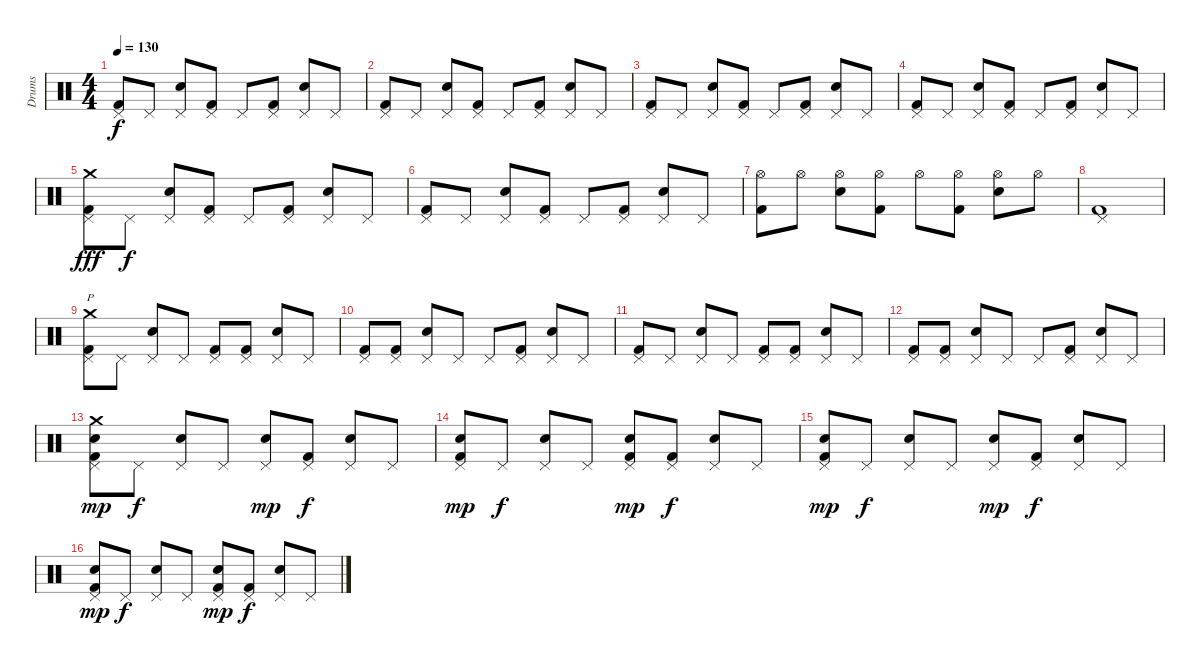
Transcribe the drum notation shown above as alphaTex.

\track ("Drums" "Drums") {instrument percussion}
\staff {score}
\articulation defaults
\ts (4 4)
\tempo 130
\clef neutral
\ks c
("Kick (hit) 2" "Pedal Hi-Hat (hit)").8{dy f} "Pedal Hi-Hat (hit)".8 ("Electric Snare (hit)" "Pedal Hi-Hat (hit)").8 ("Kick (hit) 2" "Pedal Hi-Hat (hit)").8 "Pedal Hi-Hat (hit)".8 ("Kick (hit) 2" "Pedal Hi-Hat (hit)").8 ("Electric Snare (hit)" "Pedal Hi-Hat (hit)").8 "Pedal Hi-Hat (hit)".8 |
("Kick (hit) 2" "Pedal Hi-Hat (hit)").8 "Pedal Hi-Hat (hit)".8 ("Electric Snare (hit)" "Pedal Hi-Hat (hit)").8 ("Kick (hit) 2" "Pedal Hi-Hat (hit)").8 "Pedal Hi-Hat (hit)".8 ("Kick (hit) 2" "Pedal Hi-Hat (hit)").8 ("Electric Snare (hit)" "Pedal Hi-Hat (hit)").8 "Pedal Hi-Hat (hit)".8 |
("Kick (hit) 2" "Pedal Hi-Hat (hit)").8 "Pedal Hi-Hat (hit)".8 ("Electric Snare (hit)" "Pedal Hi-Hat (hit)").8 ("Kick (hit) 2" "Pedal Hi-Hat (hit)").8 "Pedal Hi-Hat (hit)".8 ("Kick (hit) 2" "Pedal Hi-Hat (hit)").8 ("Electric Snare (hit)" "Pedal Hi-Hat (hit)").8 "Pedal Hi-Hat (hit)".8 |
("Kick (hit) 2" "Pedal Hi-Hat (hit)").8 "Pedal Hi-Hat (hit)".8 ("Electric Snare (hit)" "Pedal Hi-Hat (hit)").8 ("Kick (hit) 2" "Pedal Hi-Hat (hit)").8 "Pedal Hi-Hat (hit)".8 ("Kick (hit) 2" "Pedal Hi-Hat (hit)").8 ("Electric Snare (hit)" "Pedal Hi-Hat (hit)").8 "Pedal Hi-Hat (hit)".8 |
("Kick (hit) 2" "Crash medium (hit)" "Pedal Hi-Hat (hit)").8{dy fff} "Pedal Hi-Hat (hit)".8{dy f} ("Electric Snare (hit)" "Pedal Hi-Hat (hit)").8 ("Kick (hit) 2" "Pedal Hi-Hat (hit)").8 "Pedal Hi-Hat (hit)".8 ("Kick (hit) 2" "Pedal Hi-Hat (hit)").8 ("Electric Snare (hit)" "Pedal Hi-Hat (hit)").8 "Pedal Hi-Hat (hit)".8 |
("Kick (hit) 2" "Pedal Hi-Hat (hit)").8 "Pedal Hi-Hat (hit)".8 ("Electric Snare (hit)" "Pedal Hi-Hat (hit)").8 ("Kick (hit) 2" "Pedal Hi-Hat (hit)").8 "Pedal Hi-Hat (hit)".8 ("Kick (hit) 2" "Pedal Hi-Hat (hit)").8 ("Electric Snare (hit)" "Pedal Hi-Hat (hit)").8 "Pedal Hi-Hat (hit)".8 |
("Kick (hit) 2" "Hi-Hat (open)").8 "Hi-Hat (open)".8 ("Electric Snare (hit)" "Hi-Hat (open)").8 ("Kick (hit) 2" "Hi-Hat (open)").8 "Hi-Hat (open)".8 ("Kick (hit) 2" "Hi-Hat (open)").8 ("Electric Snare (hit)" "Hi-Hat (open)").8 "Hi-Hat (open)".8 |
("Pedal Hi-Hat (hit)" "Kick (hit) 2").1 |
("Kick (hit) 2" "Crash medium (hit)" "Pedal Hi-Hat (hit)").8{p} "Pedal Hi-Hat (hit)".8 ("Electric Snare (hit)" "Pedal Hi-Hat (hit)").8 "Pedal Hi-Hat (hit)".8 ("Kick (hit) 2" "Pedal Hi-Hat (hit)").8 ("Kick (hit) 2" "Pedal Hi-Hat (hit)").8 ("Electric Snare (hit)" "Pedal Hi-Hat (hit)").8 "Pedal Hi-Hat (hit)".8 |
("Kick (hit) 2" "Pedal Hi-Hat (hit)").8 ("Kick (hit) 2" "Pedal Hi-Hat (hit)").8 ("Electric Snare (hit)" "Pedal Hi-Hat (hit)").8 "Pedal Hi-Hat (hit)".8 "Pedal Hi-Hat (hit)".8 ("Kick (hit) 2" "Pedal Hi-Hat (hit)").8 ("Electric Snare (hit)" "Pedal Hi-Hat (hit)").8 "Pedal Hi-Hat (hit)".8 |
("Kick (hit) 2" "Pedal Hi-Hat (hit)").8 "Pedal Hi-Hat (hit)".8 ("Electric Snare (hit)" "Pedal Hi-Hat (hit)").8 "Pedal Hi-Hat (hit)".8 ("Kick (hit) 2" "Pedal Hi-Hat (hit)").8 ("Kick (hit) 2" "Pedal Hi-Hat (hit)").8 ("Electric Snare (hit)" "Pedal Hi-Hat (hit)").8 "Pedal Hi-Hat (hit)".8 |
("Kick (hit) 2" "Pedal Hi-Hat (hit)").8 ("Kick (hit) 2" "Pedal Hi-Hat (hit)").8 ("Electric Snare (hit)" "Pedal Hi-Hat (hit)").8 "Pedal Hi-Hat (hit)".8 "Pedal Hi-Hat (hit)".8 ("Kick (hit) 2" "Pedal Hi-Hat (hit)").8 ("Electric Snare (hit)" "Pedal Hi-Hat (hit)").8 "Pedal Hi-Hat (hit)".8 |
("Kick (hit) 2" "Electric Snare (hit)" "Pedal Hi-Hat (hit)" "Crash medium (hit)").8{dy mp} "Pedal Hi-Hat (hit)".8{dy f} ("Electric Snare (hit)" "Pedal Hi-Hat (hit)").8 "Pedal Hi-Hat (hit)".8 ("Pedal Hi-Hat (hit)" "Electric Snare (hit)").8{dy mp} ("Kick (hit) 2" "Pedal Hi-Hat (hit)").8{dy f} ("Electric Snare (hit)" "Pedal Hi-Hat (hit)").8 "Pedal Hi-Hat (hit)".8 |
("Kick (hit) 2" "Pedal Hi-Hat (hit)" "Electric Snare (hit)").8{dy mp} "Pedal Hi-Hat (hit)".8{dy f} ("Electric Snare (hit)" "Pedal Hi-Hat (hit)").8 "Pedal Hi-Hat (hit)".8 ("Kick (hit) 2" "Pedal Hi-Hat (hit)" "Electric Snare (hit)").8{dy mp} ("Kick (hit) 2" "Pedal Hi-Hat (hit)").8{dy f} ("Electric Snare (hit)" "Pedal Hi-Hat (hit)").8 "Pedal Hi-Hat (hit)".8 |
("Kick (hit) 2" "Electric Snare (hit)" "Pedal Hi-Hat (hit)").8{dy mp} "Pedal Hi-Hat (hit)".8{dy f} ("Electric Snare (hit)" "Pedal Hi-Hat (hit)").8 "Pedal Hi-Hat (hit)".8 ("Pedal Hi-Hat (hit)" "Electric Snare (hit)").8{dy mp} ("Kick (hit) 2" "Pedal Hi-Hat (hit)").8{dy f} ("Electric Snare (hit)" "Pedal Hi-Hat (hit)").8 "Pedal Hi-Hat (hit)".8 |
("Kick (hit) 2" "Pedal Hi-Hat (hit)" "Electric Snare (hit)").8{dy mp} "Pedal Hi-Hat (hit)".8{dy f} ("Electric Snare (hit)" "Pedal Hi-Hat (hit)").8 "Pedal Hi-Hat (hit)".8 ("Kick (hit) 2" "Pedal Hi-Hat (hit)" "Electric Snare (hit)").8{dy mp} ("Kick (hit) 2" "Pedal Hi-Hat (hit)").8{dy f} ("Electric Snare (hit)" "Pedal Hi-Hat (hit)").8 "Pedal Hi-Hat (hit)".8
